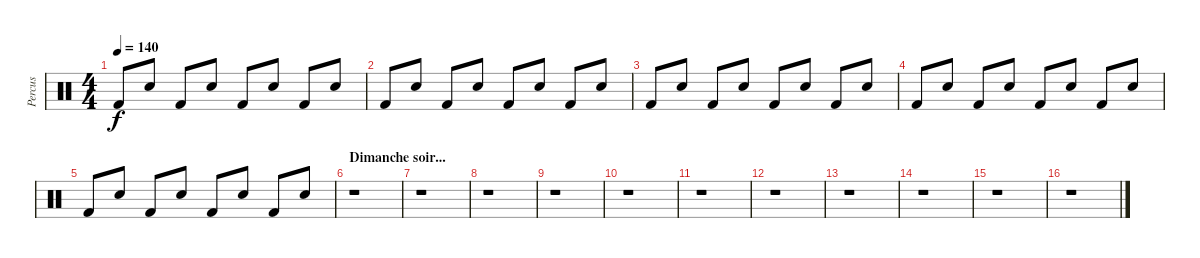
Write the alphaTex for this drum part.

\track ("Percus" "Percus") {instrument percussion}
\staff {score}
\articulation defaults
\ts (4 4)
\tempo 140
\clef neutral
\ks c "Kick (hit) 2".8{dy f} "Snare (hit) 2".8 "Kick (hit) 2".8 "Snare (hit) 2".8 "Kick (hit) 2".8 "Snare (hit) 2".8 "Kick (hit) 2".8 "Snare (hit) 2".8
|
"Kick (hit) 2".8 "Snare (hit) 2".8 "Kick (hit) 2".8 "Snare (hit) 2".8 "Kick (hit) 2".8 "Snare (hit) 2".8 "Kick (hit) 2".8 "Snare (hit) 2".8 |
"Kick (hit) 2".8 "Snare (hit) 2".8 "Kick (hit) 2".8 "Snare (hit) 2".8 "Kick (hit) 2".8 "Snare (hit) 2".8 "Kick (hit) 2".8 "Snare (hit) 2".8 |
"Kick (hit) 2".8 "Snare (hit) 2".8 "Kick (hit) 2".8 "Snare (hit) 2".8 "Kick (hit) 2".8 "Snare (hit) 2".8 "Kick (hit) 2".8 "Snare (hit) 2".8 |
"Kick (hit) 2".8 "Snare (hit) 2".8 "Kick (hit) 2".8 "Snare (hit) 2".8 "Kick (hit) 2".8 "Snare (hit) 2".8 "Kick (hit) 2".8 "Snare (hit) 2".8 |
\section ("" "Dimanche soir...")
r.1 |
r.1 |
r.1 |
r.1 |
r.1 |
r.1 |
r.1 |
r.1 |
r.1 |
r.1 |
r.1
